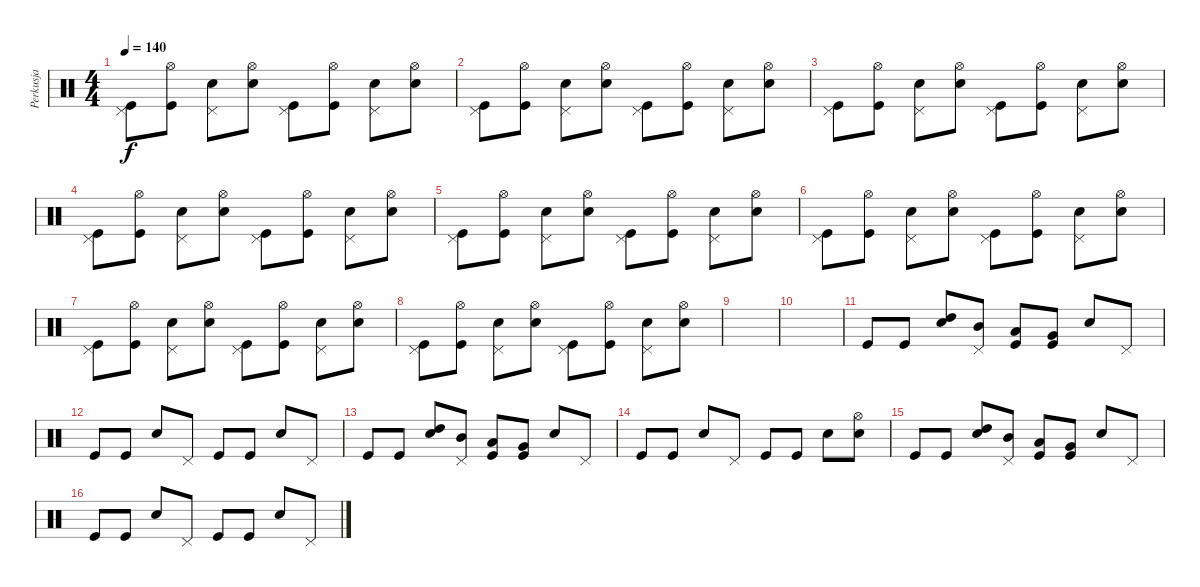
\track ("Perkusja" "Perkusja") {instrument percussion}
\staff {score}
\articulation defaults
\ts (4 4)
\tempo 140
\clef neutral
\ks c
("Kick (hit)" "Pedal Hi-Hat (hit)").8{dy f} ("Kick (hit)" "Hi-Hat (open)").8 ("Electric Snare (hit)" "Pedal Hi-Hat (hit)").8 ("Electric Snare (hit)" "Hi-Hat (open)").8 ("Kick (hit)" "Pedal Hi-Hat (hit)").8 ("Kick (hit)" "Hi-Hat (open)").8 ("Electric Snare (hit)" "Pedal Hi-Hat (hit)").8 ("Electric Snare (hit)" "Hi-Hat (open)").8 |
("Kick (hit)" "Pedal Hi-Hat (hit)").8 ("Kick (hit)" "Hi-Hat (open)").8 ("Electric Snare (hit)" "Pedal Hi-Hat (hit)").8 ("Electric Snare (hit)" "Hi-Hat (open)").8 ("Kick (hit)" "Pedal Hi-Hat (hit)").8 ("Kick (hit)" "Hi-Hat (open)").8 ("Electric Snare (hit)" "Pedal Hi-Hat (hit)").8 ("Electric Snare (hit)" "Hi-Hat (open)").8 |
("Kick (hit)" "Pedal Hi-Hat (hit)").8 ("Kick (hit)" "Hi-Hat (open)").8 ("Electric Snare (hit)" "Pedal Hi-Hat (hit)").8 ("Electric Snare (hit)" "Hi-Hat (open)").8 ("Kick (hit)" "Pedal Hi-Hat (hit)").8 ("Kick (hit)" "Hi-Hat (open)").8 ("Electric Snare (hit)" "Pedal Hi-Hat (hit)").8 ("Electric Snare (hit)" "Hi-Hat (open)").8 |
("Kick (hit)" "Pedal Hi-Hat (hit)").8 ("Kick (hit)" "Hi-Hat (open)").8 ("Electric Snare (hit)" "Pedal Hi-Hat (hit)").8 ("Electric Snare (hit)" "Hi-Hat (open)").8 ("Kick (hit)" "Pedal Hi-Hat (hit)").8 ("Kick (hit)" "Hi-Hat (open)").8 ("Electric Snare (hit)" "Pedal Hi-Hat (hit)").8 ("Electric Snare (hit)" "Hi-Hat (open)").8 |
("Kick (hit)" "Pedal Hi-Hat (hit)").8 ("Kick (hit)" "Hi-Hat (open)").8 ("Electric Snare (hit)" "Pedal Hi-Hat (hit)").8 ("Electric Snare (hit)" "Hi-Hat (open)").8 ("Kick (hit)" "Pedal Hi-Hat (hit)").8 ("Kick (hit)" "Hi-Hat (open)").8 ("Electric Snare (hit)" "Pedal Hi-Hat (hit)").8 ("Electric Snare (hit)" "Hi-Hat (open)").8 |
("Kick (hit)" "Pedal Hi-Hat (hit)").8 ("Kick (hit)" "Hi-Hat (open)").8 ("Electric Snare (hit)" "Pedal Hi-Hat (hit)").8 ("Electric Snare (hit)" "Hi-Hat (open)").8 ("Kick (hit)" "Pedal Hi-Hat (hit)").8 ("Kick (hit)" "Hi-Hat (open)").8 ("Electric Snare (hit)" "Pedal Hi-Hat (hit)").8 ("Electric Snare (hit)" "Hi-Hat (open)").8 |
("Kick (hit)" "Pedal Hi-Hat (hit)").8 ("Kick (hit)" "Hi-Hat (open)").8 ("Electric Snare (hit)" "Pedal Hi-Hat (hit)").8 ("Electric Snare (hit)" "Hi-Hat (open)").8 ("Kick (hit)" "Pedal Hi-Hat (hit)").8 ("Kick (hit)" "Hi-Hat (open)").8 ("Electric Snare (hit)" "Pedal Hi-Hat (hit)").8 ("Electric Snare (hit)" "Hi-Hat (open)").8 |
("Kick (hit)" "Pedal Hi-Hat (hit)").8 ("Kick (hit)" "Hi-Hat (open)").8 ("Electric Snare (hit)" "Pedal Hi-Hat (hit)").8 ("Electric Snare (hit)" "Hi-Hat (open)").8 ("Kick (hit)" "Pedal Hi-Hat (hit)").8 ("Kick (hit)" "Hi-Hat (open)").8 ("Electric Snare (hit)" "Pedal Hi-Hat (hit)").8 ("Electric Snare (hit)" "Hi-Hat (open)").8 |
|
|
"Kick (hit)".8 "Kick (hit)".8 ("Electric Snare (hit)" "High Tom (hit)").8 ("Mid Tom (hit)" "Pedal Hi-Hat (hit)").8 ("Kick (hit)" "Low Tom (hit)").8 ("Kick (hit)" "Very Low Tom (hit)").8 "Electric Snare (hit)".8 "Pedal Hi-Hat (hit)".8 |
"Kick (hit)".8 "Kick (hit)".8 "Electric Snare (hit)".8 "Pedal Hi-Hat (hit)".8 "Kick (hit)".8 "Kick (hit)".8 "Electric Snare (hit)".8 "Pedal Hi-Hat (hit)".8 |
"Kick (hit)".8 "Kick (hit)".8 ("Electric Snare (hit)" "High Tom (hit)").8 ("Mid Tom (hit)" "Pedal Hi-Hat (hit)").8 ("Kick (hit)" "Low Tom (hit)").8 ("Kick (hit)" "Very Low Tom (hit)").8 "Electric Snare (hit)".8 "Pedal Hi-Hat (hit)".8 |
"Kick (hit)".8 "Kick (hit)".8 "Electric Snare (hit)".8 "Pedal Hi-Hat (hit)".8 "Kick (hit)".8 "Kick (hit)".8 "Electric Snare (hit)".8 ("Hi-Hat (open)" "Electric Snare (hit)").8 |
"Kick (hit)".8 "Kick (hit)".8 ("Electric Snare (hit)" "High Tom (hit)").8 ("Mid Tom (hit)" "Pedal Hi-Hat (hit)").8 ("Kick (hit)" "Low Tom (hit)").8 ("Kick (hit)" "Very Low Tom (hit)").8 "Electric Snare (hit)".8 "Pedal Hi-Hat (hit)".8 |
"Kick (hit)".8 "Kick (hit)".8 "Electric Snare (hit)".8 "Pedal Hi-Hat (hit)".8 "Kick (hit)".8 "Kick (hit)".8 "Electric Snare (hit)".8 "Pedal Hi-Hat (hit)".8
